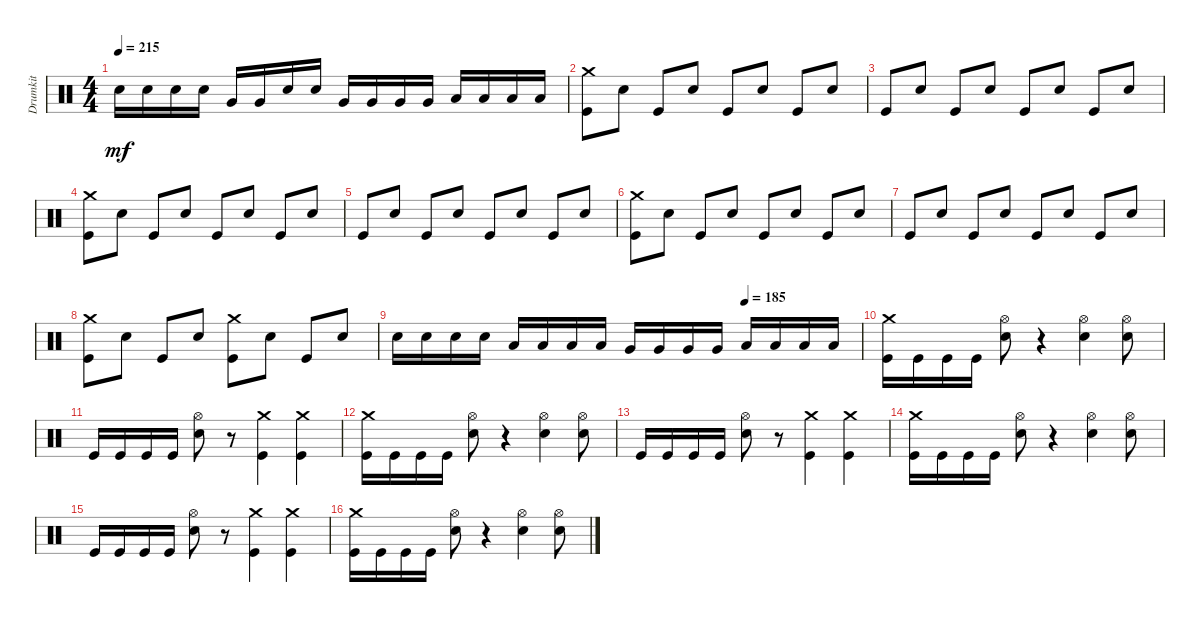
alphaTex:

\track ("Drumkit" "Drumkit") {instrument percussion}
\staff {score}
\articulation defaults
\ts (4 4)
\tempo 215
\clef neutral
\ks c "Snare (hit) 2".16{dy mf} "Snare (hit) 2".16 "Snare (hit) 2".16 "Snare (hit) 2".16 "Very Low Tom (hit)".16 "Very Low Tom (hit)".16 "Snare (hit) 2".16 "Snare (hit) 2".16 "Very Low Tom (hit)".16 "Very Low Tom (hit)".16 "Very Low Tom (hit)".16 "Very Low Tom (hit)".16 "Low Tom (hit)".16 "Low Tom (hit)".16 "Low Tom (hit)".16 "Low Tom (hit)".16
|
("Kick (hit)" "Crash medium (hit)").8 "Snare (hit) 2".8 "Kick (hit)".8 "Snare (hit) 2".8 "Kick (hit)".8 "Snare (hit) 2".8 "Kick (hit)".8 "Snare (hit) 2".8 |
"Kick (hit)".8 "Snare (hit) 2".8 "Kick (hit)".8 "Snare (hit) 2".8 "Kick (hit)".8 "Snare (hit) 2".8 "Kick (hit)".8 "Snare (hit) 2".8 |
("Kick (hit)" "Crash medium (hit)").8 "Snare (hit) 2".8 "Kick (hit)".8 "Snare (hit) 2".8 "Kick (hit)".8 "Snare (hit) 2".8 "Kick (hit)".8 "Snare (hit) 2".8 |
"Kick (hit)".8 "Snare (hit) 2".8 "Kick (hit)".8 "Snare (hit) 2".8 "Kick (hit)".8 "Snare (hit) 2".8 "Kick (hit)".8 "Snare (hit) 2".8 |
("Kick (hit)" "Crash medium (hit)").8 "Snare (hit) 2".8 "Kick (hit)".8 "Snare (hit) 2".8 "Kick (hit)".8 "Snare (hit) 2".8 "Kick (hit)".8 "Snare (hit) 2".8 |
"Kick (hit)".8 "Snare (hit) 2".8 "Kick (hit)".8 "Snare (hit) 2".8 "Kick (hit)".8 "Snare (hit) 2".8 "Kick (hit)".8 "Snare (hit) 2".8 |
("Kick (hit)" "Crash medium (hit)").8 "Snare (hit) 2".8 "Kick (hit)".8 "Snare (hit) 2".8 ("Kick (hit)" "Crash medium (hit)").8 "Snare (hit) 2".8 "Kick (hit)".8 "Snare (hit) 2".8 |
\tempo (185 0.75)
"Snare (hit) 2".16 "Snare (hit) 2".16 "Snare (hit) 2".16 "Snare (hit) 2".16 "Low Floor Tom (hit)".16 "Low Floor Tom (hit)".16 "Low Floor Tom (hit)".16 "Low Floor Tom (hit)".16 "Very Low Tom (hit)".16 "Very Low Tom (hit)".16 "Very Low Tom (hit)".16 "Very Low Tom (hit)".16 "Low Tom (hit)".16 "Low Tom (hit)".16 "Low Tom (hit)".16 "Low Tom (hit)".16 |
("Kick (hit)" "Crash medium (hit)").16 "Kick (hit)".16 "Kick (hit)".16 "Kick (hit)".16 ("Snare (hit) 2" "Hi-Hat (open)").8 r.4 ("Snare (hit) 2" "Hi-Hat (open)").4 ("Snare (hit) 2" "Hi-Hat (open)").8 |
"Kick (hit)".16 "Kick (hit)".16 "Kick (hit)".16 "Kick (hit)".16 ("Snare (hit) 2" "Hi-Hat (open)").8 r.8 ("Kick (hit)" "Crash medium (hit)").4 ("Kick (hit)" "Crash medium (hit)").4 |
("Kick (hit)" "Crash medium (hit)").16 "Kick (hit)".16 "Kick (hit)".16 "Kick (hit)".16 ("Snare (hit) 2" "Hi-Hat (open)").8 r.4 ("Snare (hit) 2" "Hi-Hat (open)").4 ("Snare (hit) 2" "Hi-Hat (open)").8 |
"Kick (hit)".16 "Kick (hit)".16 "Kick (hit)".16 "Kick (hit)".16 ("Snare (hit) 2" "Hi-Hat (open)").8 r.8 ("Kick (hit)" "Crash medium (hit)").4 ("Kick (hit)" "Crash medium (hit)").4 |
("Kick (hit)" "Crash medium (hit)").16 "Kick (hit)".16 "Kick (hit)".16 "Kick (hit)".16 ("Snare (hit) 2" "Hi-Hat (open)").8 r.4 ("Snare (hit) 2" "Hi-Hat (open)").4 ("Snare (hit) 2" "Hi-Hat (open)").8 |
"Kick (hit)".16 "Kick (hit)".16 "Kick (hit)".16 "Kick (hit)".16 ("Snare (hit) 2" "Hi-Hat (open)").8 r.8 ("Kick (hit)" "Crash medium (hit)").4 ("Kick (hit)" "Crash medium (hit)").4 |
("Kick (hit)" "Crash medium (hit)").16 "Kick (hit)".16 "Kick (hit)".16 "Kick (hit)".16 ("Snare (hit) 2" "Hi-Hat (open)").8 r.4 ("Snare (hit) 2" "Hi-Hat (open)").4 ("Snare (hit) 2" "Hi-Hat (open)").8
